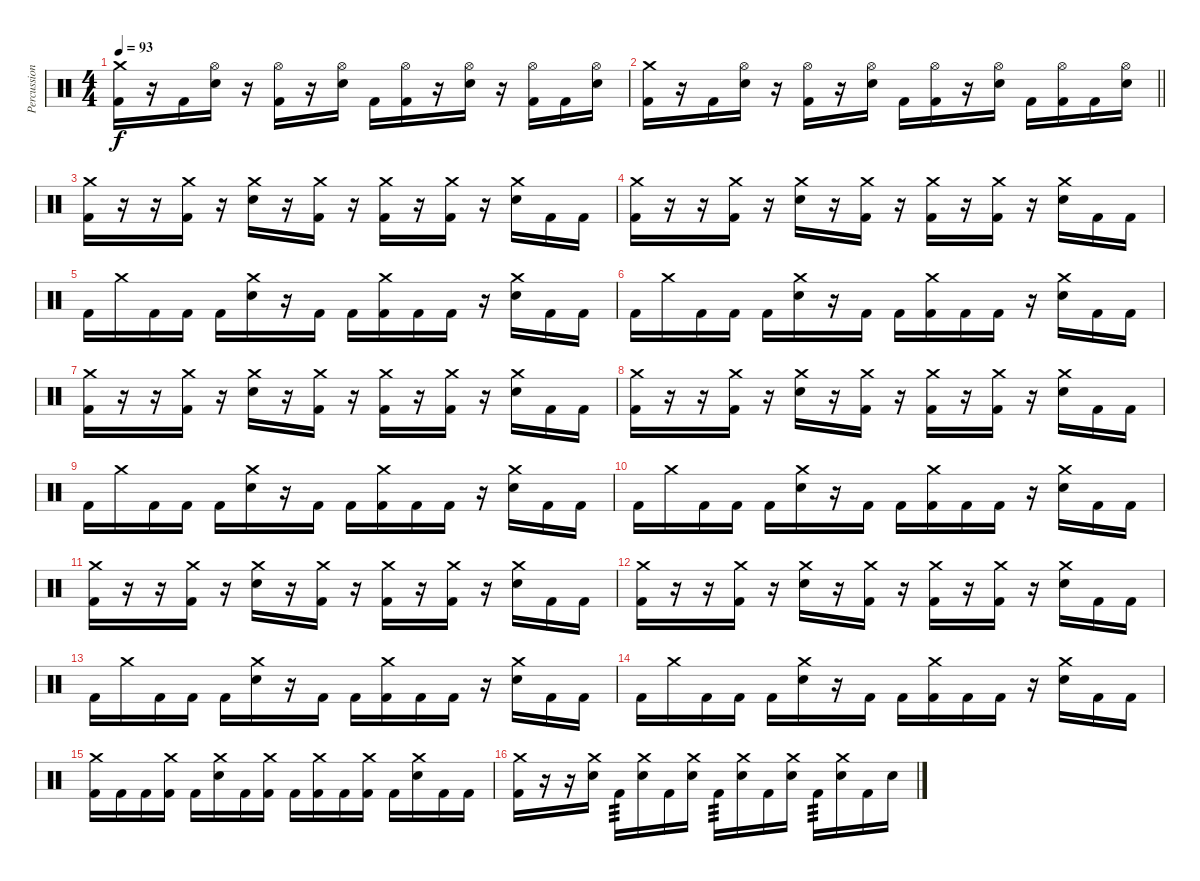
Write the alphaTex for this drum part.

\track ("Percussion" "Percussion") {instrument percussion}
\staff {score}
\articulation defaults
\ts (4 4)
\tempo 93
\clef neutral
\ks c
("Crash medium (hit)" "Kick (hit) 2").16{dy f} r.16 "Kick (hit) 2".16 ("Hi-Hat (open)" "Electric Snare (hit)").16 r.16 ("Hi-Hat (open)" "Kick (hit) 2").16 r.16 ("Hi-Hat (open)" "Electric Snare (hit)").16 "Kick (hit) 2".16 ("Hi-Hat (open)" "Kick (hit) 2").16 r.16 ("Hi-Hat (open)" "Electric Snare (hit)").16 r.16 ("Hi-Hat (open)" "Kick (hit) 2").16 "Kick (hit) 2".16 ("Hi-Hat (open)" "Electric Snare (hit)").16 |
\barLineRight lightlight
("Crash medium (hit)" "Kick (hit) 2").16 r.16 "Kick (hit) 2".16 ("Hi-Hat (open)" "Electric Snare (hit)").16 r.16 ("Hi-Hat (open)" "Kick (hit) 2").16 r.16 ("Hi-Hat (open)" "Electric Snare (hit)").16 "Kick (hit) 2".16 ("Hi-Hat (open)" "Kick (hit) 2").16 r.16 ("Hi-Hat (open)" "Electric Snare (hit)").16 "Kick (hit) 2".16 ("Hi-Hat (open)" "Kick (hit) 2").16 "Kick (hit) 2".16 ("Hi-Hat (open)" "Electric Snare (hit)").16 |
("Crash medium (hit)" "Kick (hit) 2").16 r.16 r.16 ("Crash medium (hit)" "Kick (hit) 2").16 r.16 ("Crash medium (hit)" "Electric Snare (hit)").16 r.16 ("Crash medium (hit)" "Kick (hit) 2").16 r.16 ("Crash medium (hit)" "Kick (hit) 2").16 r.16 ("Crash medium (hit)" "Kick (hit) 2").16 r.16 ("Crash medium (hit)" "Electric Snare (hit)").16 "Kick (hit) 2".16 "Kick (hit) 2".16 |
("Crash medium (hit)" "Kick (hit) 2").16 r.16 r.16 ("Crash medium (hit)" "Kick (hit) 2").16 r.16 ("Crash medium (hit)" "Electric Snare (hit)").16 r.16 ("Crash medium (hit)" "Kick (hit) 2").16 r.16 ("Crash medium (hit)" "Kick (hit) 2").16 r.16 ("Crash medium (hit)" "Kick (hit) 2").16 r.16 ("Crash medium (hit)" "Electric Snare (hit)").16 "Kick (hit) 2".16 "Kick (hit) 2".16 |
"Kick (hit) 2".16 "Crash medium (hit)".16 "Kick (hit) 2".16 "Kick (hit) 2".16 "Kick (hit) 2".16 ("Crash medium (hit)" "Electric Snare (hit)").16 r.16 "Kick (hit) 2".16 "Kick (hit) 2".16 ("Crash medium (hit)" "Kick (hit) 2").16 "Kick (hit) 2".16 "Kick (hit) 2".16 r.16 ("Crash medium (hit)" "Electric Snare (hit)").16 "Kick (hit) 2".16 "Kick (hit) 2".16 |
"Kick (hit) 2".16 "Crash medium (hit)".16 "Kick (hit) 2".16 "Kick (hit) 2".16 "Kick (hit) 2".16 ("Crash medium (hit)" "Electric Snare (hit)").16 r.16 "Kick (hit) 2".16 "Kick (hit) 2".16 ("Crash medium (hit)" "Kick (hit) 2").16 "Kick (hit) 2".16 "Kick (hit) 2".16 r.16 ("Crash medium (hit)" "Electric Snare (hit)").16 "Kick (hit) 2".16 "Kick (hit) 2".16 |
("Crash medium (hit)" "Kick (hit) 2").16 r.16 r.16 ("Crash medium (hit)" "Kick (hit) 2").16 r.16 ("Crash medium (hit)" "Electric Snare (hit)").16 r.16 ("Crash medium (hit)" "Kick (hit) 2").16 r.16 ("Crash medium (hit)" "Kick (hit) 2").16 r.16 ("Crash medium (hit)" "Kick (hit) 2").16 r.16 ("Crash medium (hit)" "Electric Snare (hit)").16 "Kick (hit) 2".16 "Kick (hit) 2".16 |
("Crash medium (hit)" "Kick (hit) 2").16 r.16 r.16 ("Crash medium (hit)" "Kick (hit) 2").16 r.16 ("Crash medium (hit)" "Electric Snare (hit)").16 r.16 ("Crash medium (hit)" "Kick (hit) 2").16 r.16 ("Crash medium (hit)" "Kick (hit) 2").16 r.16 ("Crash medium (hit)" "Kick (hit) 2").16 r.16 ("Crash medium (hit)" "Electric Snare (hit)").16 "Kick (hit) 2".16 "Kick (hit) 2".16 |
"Kick (hit) 2".16 "Crash medium (hit)".16 "Kick (hit) 2".16 "Kick (hit) 2".16 "Kick (hit) 2".16 ("Crash medium (hit)" "Electric Snare (hit)").16 r.16 "Kick (hit) 2".16 "Kick (hit) 2".16 ("Crash medium (hit)" "Kick (hit) 2").16 "Kick (hit) 2".16 "Kick (hit) 2".16 r.16 ("Crash medium (hit)" "Electric Snare (hit)").16 "Kick (hit) 2".16 "Kick (hit) 2".16 |
"Kick (hit) 2".16 "Crash medium (hit)".16 "Kick (hit) 2".16 "Kick (hit) 2".16 "Kick (hit) 2".16 ("Crash medium (hit)" "Electric Snare (hit)").16 r.16 "Kick (hit) 2".16 "Kick (hit) 2".16 ("Crash medium (hit)" "Kick (hit) 2").16 "Kick (hit) 2".16 "Kick (hit) 2".16 r.16 ("Crash medium (hit)" "Electric Snare (hit)").16 "Kick (hit) 2".16 "Kick (hit) 2".16 |
("Crash medium (hit)" "Kick (hit) 2").16 r.16 r.16 ("Crash medium (hit)" "Kick (hit) 2").16 r.16 ("Crash medium (hit)" "Electric Snare (hit)").16 r.16 ("Crash medium (hit)" "Kick (hit) 2").16 r.16 ("Crash medium (hit)" "Kick (hit) 2").16 r.16 ("Crash medium (hit)" "Kick (hit) 2").16 r.16 ("Crash medium (hit)" "Electric Snare (hit)").16 "Kick (hit) 2".16 "Kick (hit) 2".16 |
("Crash medium (hit)" "Kick (hit) 2").16 r.16 r.16 ("Crash medium (hit)" "Kick (hit) 2").16 r.16 ("Crash medium (hit)" "Electric Snare (hit)").16 r.16 ("Crash medium (hit)" "Kick (hit) 2").16 r.16 ("Crash medium (hit)" "Kick (hit) 2").16 r.16 ("Crash medium (hit)" "Kick (hit) 2").16 r.16 ("Crash medium (hit)" "Electric Snare (hit)").16 "Kick (hit) 2".16 "Kick (hit) 2".16 |
"Kick (hit) 2".16 "Crash medium (hit)".16 "Kick (hit) 2".16 "Kick (hit) 2".16 "Kick (hit) 2".16 ("Crash medium (hit)" "Electric Snare (hit)").16 r.16 "Kick (hit) 2".16 "Kick (hit) 2".16 ("Crash medium (hit)" "Kick (hit) 2").16 "Kick (hit) 2".16 "Kick (hit) 2".16 r.16 ("Crash medium (hit)" "Electric Snare (hit)").16 "Kick (hit) 2".16 "Kick (hit) 2".16 |
"Kick (hit) 2".16 "Crash medium (hit)".16 "Kick (hit) 2".16 "Kick (hit) 2".16 "Kick (hit) 2".16 ("Crash medium (hit)" "Electric Snare (hit)").16 r.16 "Kick (hit) 2".16 "Kick (hit) 2".16 ("Crash medium (hit)" "Kick (hit) 2").16 "Kick (hit) 2".16 "Kick (hit) 2".16 r.16 ("Crash medium (hit)" "Electric Snare (hit)").16 "Kick (hit) 2".16 "Kick (hit) 2".16 |
("Crash medium (hit)" "Kick (hit) 2").16 "Kick (hit) 2".16 "Kick (hit) 2".16 ("Crash medium (hit)" "Kick (hit) 2").16 "Kick (hit) 2".16 ("Crash medium (hit)" "Electric Snare (hit)").16 "Kick (hit) 2".16 ("Crash medium (hit)" "Kick (hit) 2").16 "Kick (hit) 2".16 ("Crash medium (hit)" "Kick (hit) 2").16 "Kick (hit) 2".16 ("Crash medium (hit)" "Kick (hit) 2").16 "Kick (hit) 2".16 ("Crash medium (hit)" "Electric Snare (hit)").16 "Kick (hit) 2".16 "Kick (hit) 2".16 |
("Crash medium (hit)" "Kick (hit) 2").16 r.16 r.16 ("Crash medium (hit)" "Electric Snare (hit)").16 "Kick (hit) 2".16{tp 3} ("Crash medium (hit)" "Electric Snare (hit)").16 "Kick (hit) 2".16 ("Crash medium (hit)" "Electric Snare (hit)").16 "Kick (hit) 2".16{tp 3} ("Crash medium (hit)" "Electric Snare (hit)").16 "Kick (hit) 2".16 ("Crash medium (hit)" "Electric Snare (hit)").16 "Kick (hit) 2".16{tp 3} ("Crash medium (hit)" "Electric Snare (hit)").16 "Kick (hit) 2".16 "Electric Snare (hit)".16
